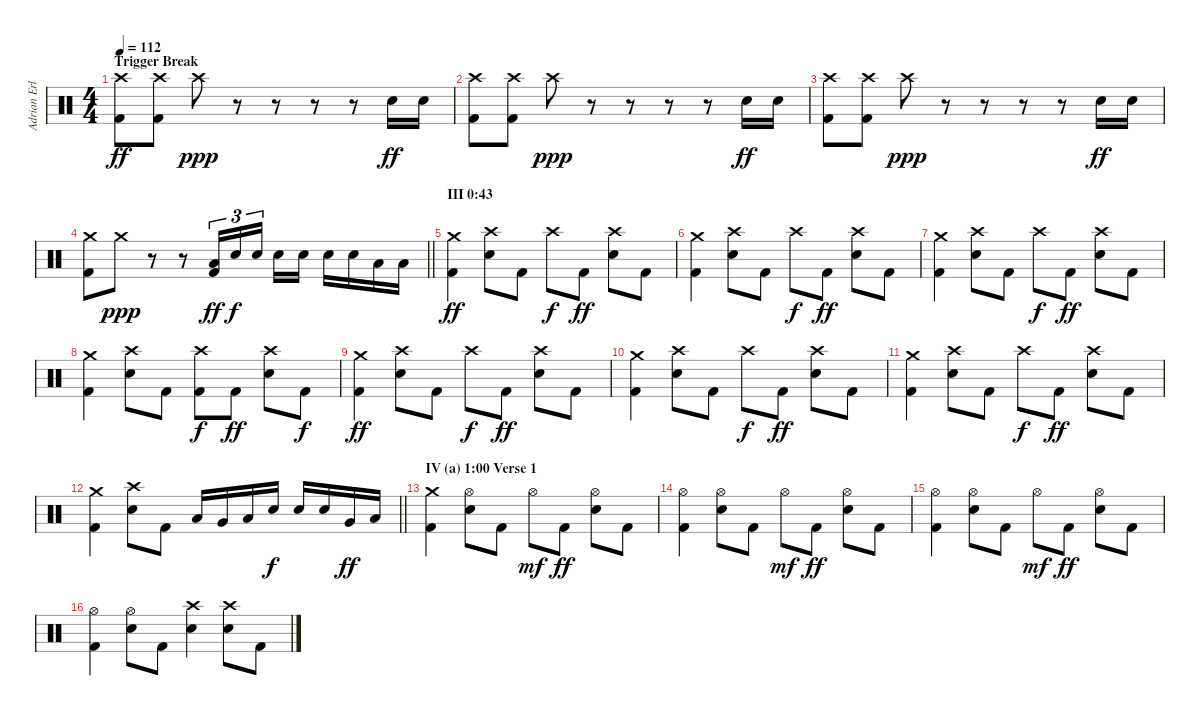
\track ("Adrian Erlandsson (Drums)" "Adrian Erl") {instrument percussion}
\staff {score}
\articulation defaults
\ts (4 4)
\section ("" "Trigger Break")
\tempo 112
\clef neutral
\ks c
("Crash high (hit)" "Kick (hit) 2").8{dy ff} ("Crash high (hit)" "Kick (hit) 2").8 "Crash high (hit)".8{dy ppp} r.8 r.8 r.8 r.8 "Electric Snare (hit)".16{dy ff} "Electric Snare (hit)".16 |
("Crash high (hit)" "Kick (hit) 2").8 ("Crash high (hit)" "Kick (hit) 2").8 "Crash high (hit)".8{dy ppp} r.8 r.8 r.8 r.8 "Electric Snare (hit)".16{dy ff} "Electric Snare (hit)".16 |
("Crash high (hit)" "Kick (hit) 2").8 ("Crash high (hit)" "Kick (hit) 2").8 "Crash high (hit)".8{dy ppp} r.8 r.8 r.8 r.8 "Electric Snare (hit)".16{dy ff} "Electric Snare (hit)".16 |
\barLineRight lightlight
("Crash medium (hit)" "Kick (hit) 2").8 "Crash medium (hit)".8{dy ppp} r.8 r.8 ("Low Tom (hit)" "Kick (hit) 2").16{tu (3 2) dy ff} "Electric Snare (hit)".16{tu (3 2) dy f} "Electric Snare (hit)".16{tu (3 2) beam splitsecondary} "Electric Snare (hit)".16 "Electric Snare (hit)".16 "Electric Snare (hit)".16 "Electric Snare (hit)".16 "Low Tom (hit)".16 "Low Tom (hit)".16 |
\section ("" "III 0:43")
("Crash medium (hit)" "Kick (hit) 2").4{dy ff} ("Crash high (hit)" "Electric Snare (hit)").8 "Kick (hit) 2".8 "Crash high (hit)".8{dy f} "Kick (hit) 2".8{dy ff} ("Crash high (hit)" "Electric Snare (hit)").8 "Kick (hit) 2".8 |
("Crash medium (hit)" "Kick (hit) 2").4 ("Crash high (hit)" "Electric Snare (hit)").8 "Kick (hit) 2".8 "Crash high (hit)".8{dy f} "Kick (hit) 2".8{dy ff} ("Crash high (hit)" "Electric Snare (hit)").8 "Kick (hit) 2".8 |
("Crash medium (hit)" "Kick (hit) 2").4 ("Crash high (hit)" "Electric Snare (hit)").8 "Kick (hit) 2".8 "Crash high (hit)".8{dy f} "Kick (hit) 2".8{dy ff} ("Crash high (hit)" "Electric Snare (hit)").8 "Kick (hit) 2".8 |
("Crash medium (hit)" "Kick (hit) 2").4 ("Crash high (hit)" "Electric Snare (hit)").8 "Kick (hit) 2".8 ("Crash high (hit)" "Kick (hit) 2").8{dy f} "Kick (hit) 2".8{dy ff} ("Crash high (hit)" "Electric Snare (hit)").8 "Kick (hit) 2".8{dy f} |
("Crash medium (hit)" "Kick (hit) 2").4{dy ff} ("Crash high (hit)" "Electric Snare (hit)").8 "Kick (hit) 2".8 "Crash high (hit)".8{dy f} "Kick (hit) 2".8{dy ff} ("Crash high (hit)" "Electric Snare (hit)").8 "Kick (hit) 2".8 |
("Crash medium (hit)" "Kick (hit) 2").4 ("Crash high (hit)" "Electric Snare (hit)").8 "Kick (hit) 2".8 "Crash high (hit)".8{dy f} "Kick (hit) 2".8{dy ff} ("Crash high (hit)" "Electric Snare (hit)").8 "Kick (hit) 2".8 |
("Crash medium (hit)" "Kick (hit) 2").4 ("Crash high (hit)" "Electric Snare (hit)").8 "Kick (hit) 2".8 "Crash high (hit)".8{dy f} "Kick (hit) 2".8{dy ff} ("Crash high (hit)" "Electric Snare (hit)").8 "Kick (hit) 2".8 |
\barLineRight lightlight
("Crash medium (hit)" "Kick (hit) 2").4 ("Crash high (hit)" "Electric Snare (hit)").8 "Kick (hit) 2".8 "Low Tom (hit)".16 "Very Low Tom (hit)".16 "Low Floor Tom (hit)".16 "Electric Snare (hit)".16{dy f} "Electric Snare (hit)".16 "Electric Snare (hit)".16 "Very Low Tom (hit)".16{dy ff} "Low Floor Tom (hit)".16 |
\section ("" "IV (a) 1:00 Verse 1")
("Crash medium (hit)" "Kick (hit) 2").4 ("Hi-Hat (open)" "Electric Snare (hit)").8 "Kick (hit) 2".8 "Hi-Hat (open)".8{dy mf} "Kick (hit) 2".8{dy ff} ("Hi-Hat (open)" "Electric Snare (hit)").8 "Kick (hit) 2".8 |
("Hi-Hat (open)" "Kick (hit) 2").4 ("Hi-Hat (open)" "Electric Snare (hit)").8 "Kick (hit) 2".8 "Hi-Hat (open)".8{dy mf} "Kick (hit) 2".8{dy ff} ("Hi-Hat (open)" "Electric Snare (hit)").8 "Kick (hit) 2".8 |
("Hi-Hat (open)" "Kick (hit) 2").4 ("Hi-Hat (open)" "Electric Snare (hit)").8 "Kick (hit) 2".8 "Hi-Hat (open)".8{dy mf} "Kick (hit) 2".8{dy ff} ("Hi-Hat (open)" "Electric Snare (hit)").8 "Kick (hit) 2".8 |
("Hi-Hat (open)" "Kick (hit) 2").4 ("Hi-Hat (open)" "Electric Snare (hit)").8 "Kick (hit) 2".8 ("Crash high (hit)" "Electric Snare (hit)").4 ("Crash high (hit)" "Electric Snare (hit)").8 "Kick (hit) 2".8
